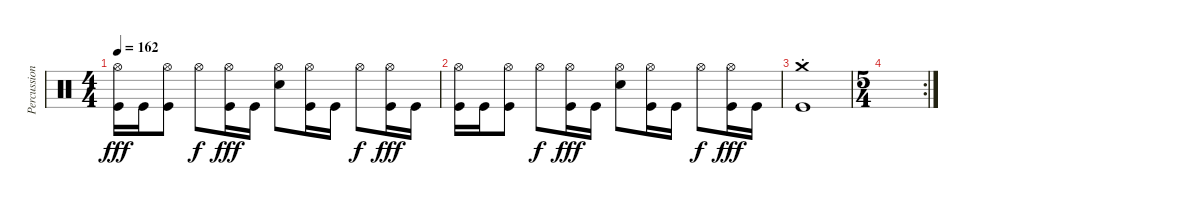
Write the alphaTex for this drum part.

\track ("Percussion" "Percussion") {instrument percussion}
\staff {score}
\articulation defaults
\ts (4 4)
\tempo 162
\clef neutral
\ks c
("Hi-Hat (open)" "Kick (hit)").16{dy fff} "Kick (hit)".16 ("Hi-Hat (open)" "Kick (hit)").8 "Hi-Hat (open)".8{dy f} ("Hi-Hat (open)" "Kick (hit)").16{dy fff} "Kick (hit)".16 ("Hi-Hat (open)" "Snare (hit) 2").8 ("Hi-Hat (open)" "Kick (hit)").16 "Kick (hit)".16 "Hi-Hat (open)".8{dy f} ("Hi-Hat (open)" "Kick (hit)").16{dy fff} "Kick (hit)".16 |
("Hi-Hat (open)" "Kick (hit)").16 "Kick (hit)".16 ("Hi-Hat (open)" "Kick (hit)").8 "Hi-Hat (open)".8{dy f} ("Hi-Hat (open)" "Kick (hit)").16{dy fff} "Kick (hit)".16 ("Hi-Hat (open)" "Snare (hit) 2").8 ("Hi-Hat (open)" "Kick (hit)").16 "Kick (hit)".16 "Hi-Hat (open)".8{dy f} ("Hi-Hat (open)" "Kick (hit)").16{dy fff} "Kick (hit)".16 |
("Crash medium (hit)"{st} "Kick (hit)").1 |
\rc 2
\ts (5 4)
